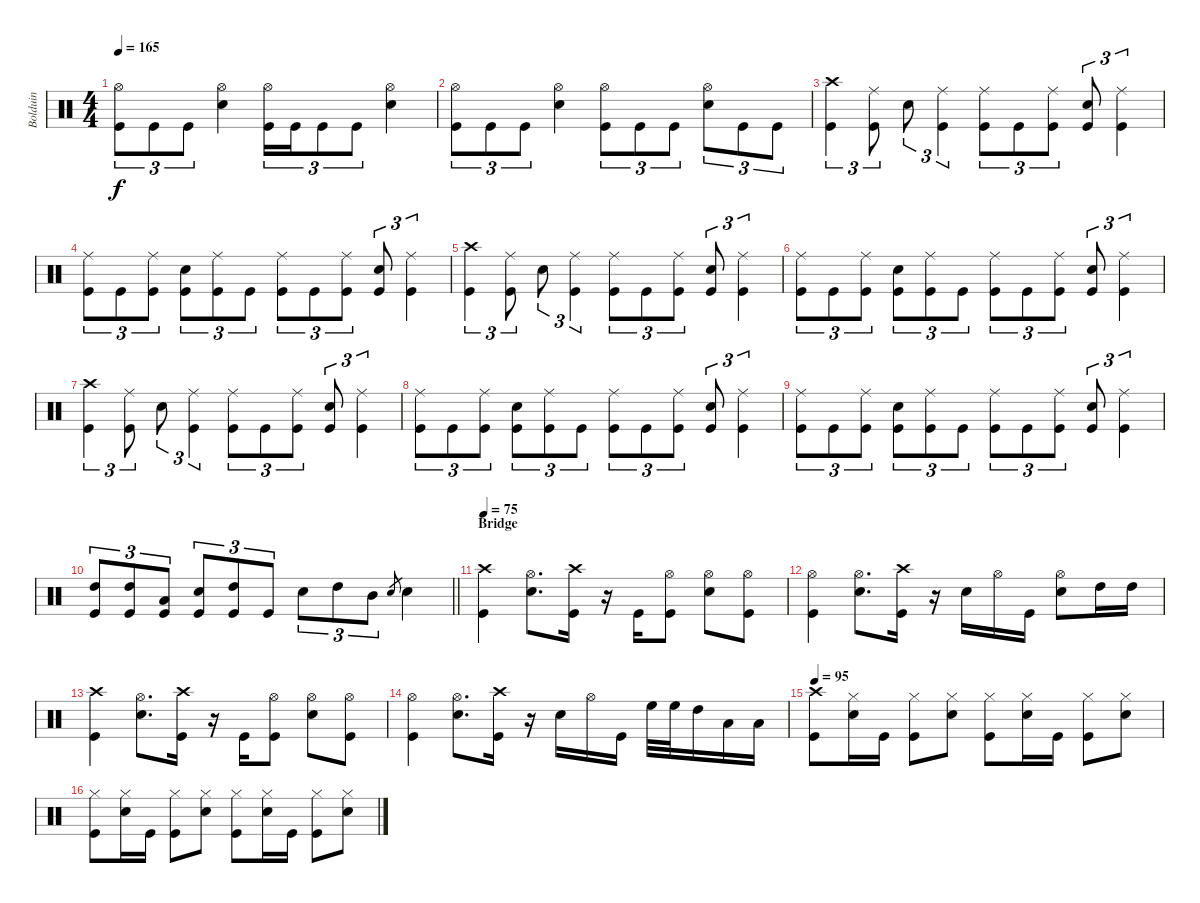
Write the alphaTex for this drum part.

\track ("Bolduin" "Bolduin") {instrument percussion}
\staff {score}
\articulation defaults
\ts (4 4)
\tempo 165
\clef neutral
\ks aminor
("Hi-Hat (open)" "Kick (hit)").8{tu (3 2) dy f} "Kick (hit)".8{tu (3 2)} "Kick (hit)".8{tu (3 2)} ("Hi-Hat (open)" "Snare (hit) 2").4 ("Hi-Hat (open)" "Kick (hit)").16{tu (3 2)} "Kick (hit)".16{tu (3 2)} "Kick (hit)".8{tu (3 2)} "Kick (hit)".8{tu (3 2)} ("Hi-Hat (open)" "Snare (hit) 2").4 |
("Hi-Hat (open)" "Kick (hit)").8{tu (3 2)} "Kick (hit)".8{tu (3 2)} "Kick (hit)".8{tu (3 2)} ("Hi-Hat (open)" "Snare (hit) 2").4 ("Hi-Hat (open)" "Kick (hit)").8{tu (3 2)} "Kick (hit)".8{tu (3 2)} "Kick (hit)".8{tu (3 2)} ("Hi-Hat (open)" "Snare (hit) 2").8{tu (3 2)} "Kick (hit)".8{tu (3 2)} "Kick (hit)".8{tu (3 2)} |
("Crash high (hit)" "Kick (hit)").4{tu (3 2)} ("Kick (hit)" "Ride (middle)").8{tu (3 2)} "Snare (hit) 2".8{tu (3 2)} ("Kick (hit)" "Ride (middle)").4{tu (3 2)} ("Kick (hit)" "Ride (middle)").8{tu (3 2)} "Kick (hit)".8{tu (3 2)} ("Kick (hit)" "Ride (middle)").8{tu (3 2)} ("Kick (hit)" "Snare (hit) 2").8{tu (3 2)} ("Kick (hit)" "Ride (middle)").4{tu (3 2)} |
("Kick (hit)" "Ride (middle)").8{tu (3 2)} "Kick (hit)".8{tu (3 2)} ("Kick (hit)" "Ride (middle)").8{tu (3 2)} ("Kick (hit)" "Snare (hit) 2").8{tu (3 2)} ("Kick (hit)" "Ride (middle)").8{tu (3 2)} "Kick (hit)".8{tu (3 2)} ("Kick (hit)" "Ride (middle)").8{tu (3 2)} "Kick (hit)".8{tu (3 2)} ("Kick (hit)" "Ride (middle)").8{tu (3 2)} ("Kick (hit)" "Snare (hit) 2").8{tu (3 2)} ("Kick (hit)" "Ride (middle)").4{tu (3 2)} |
("Crash high (hit)" "Kick (hit)").4{tu (3 2)} ("Kick (hit)" "Ride (middle)").8{tu (3 2)} "Snare (hit) 2".8{tu (3 2)} ("Kick (hit)" "Ride (middle)").4{tu (3 2)} ("Kick (hit)" "Ride (middle)").8{tu (3 2)} "Kick (hit)".8{tu (3 2)} ("Kick (hit)" "Ride (middle)").8{tu (3 2)} ("Kick (hit)" "Snare (hit) 2").8{tu (3 2)} ("Kick (hit)" "Ride (middle)").4{tu (3 2)} |
("Kick (hit)" "Ride (middle)").8{tu (3 2)} "Kick (hit)".8{tu (3 2)} ("Kick (hit)" "Ride (middle)").8{tu (3 2)} ("Kick (hit)" "Snare (hit) 2").8{tu (3 2)} ("Kick (hit)" "Ride (middle)").8{tu (3 2)} "Kick (hit)".8{tu (3 2)} ("Kick (hit)" "Ride (middle)").8{tu (3 2)} "Kick (hit)".8{tu (3 2)} ("Kick (hit)" "Ride (middle)").8{tu (3 2)} ("Kick (hit)" "Snare (hit) 2").8{tu (3 2)} ("Kick (hit)" "Ride (middle)").4{tu (3 2)} |
("Crash high (hit)" "Kick (hit)").4{tu (3 2)} ("Kick (hit)" "Ride (middle)").8{tu (3 2)} "Snare (hit) 2".8{tu (3 2)} ("Kick (hit)" "Ride (middle)").4{tu (3 2)} ("Kick (hit)" "Ride (middle)").8{tu (3 2)} "Kick (hit)".8{tu (3 2)} ("Kick (hit)" "Ride (middle)").8{tu (3 2)} ("Kick (hit)" "Snare (hit) 2").8{tu (3 2)} ("Kick (hit)" "Ride (middle)").4{tu (3 2)} |
("Kick (hit)" "Ride (middle)").8{tu (3 2)} "Kick (hit)".8{tu (3 2)} ("Kick (hit)" "Ride (middle)").8{tu (3 2)} ("Kick (hit)" "Snare (hit) 2").8{tu (3 2)} ("Kick (hit)" "Ride (middle)").8{tu (3 2)} "Kick (hit)".8{tu (3 2)} ("Kick (hit)" "Ride (middle)").8{tu (3 2)} "Kick (hit)".8{tu (3 2)} ("Kick (hit)" "Ride (middle)").8{tu (3 2)} ("Kick (hit)" "Snare (hit) 2").8{tu (3 2)} ("Kick (hit)" "Ride (middle)").4{tu (3 2)} |
("Kick (hit)" "Ride (middle)").8{tu (3 2)} "Kick (hit)".8{tu (3 2)} ("Kick (hit)" "Ride (middle)").8{tu (3 2)} ("Kick (hit)" "Snare (hit) 2").8{tu (3 2)} ("Kick (hit)" "Ride (middle)").8{tu (3 2)} "Kick (hit)".8{tu (3 2)} ("Kick (hit)" "Ride (middle)").8{tu (3 2)} "Kick (hit)".8{tu (3 2)} ("Kick (hit)" "Ride (middle)").8{tu (3 2)} ("Kick (hit)" "Snare (hit) 2").8{tu (3 2)} ("Kick (hit)" "Ride (middle)").4{tu (3 2)} |
\barLineRight lightlight
("High Tom (hit)" "Kick (hit)").8{tu (3 2)} ("High Tom (hit)" "Kick (hit)").8{tu (3 2)} ("Low Tom (hit)" "Kick (hit)").8{tu (3 2)} ("Kick (hit)" "Snare (hit) 2").8{tu (3 2)} ("High Tom (hit)" "Kick (hit)").8{tu (3 2)} "Kick (hit)".8{tu (3 2)} "Snare (hit) 2".8{tu (3 2)} "High Tom (hit)".8{tu (3 2)} "Mid Tom (hit)".8{tu (3 2)} "Snare (hit) 2".8{gr} "Snare (hit) 2".4 |
\section ("" "Bridge")
\tempo 75
("Crash high (hit)" "Kick (hit)").4 ("Hi-Hat (open)" "Snare (hit) 2").8{d} ("Kick (hit)" "Crash high (hit)").16 r.16 "Kick (hit)".16 ("Kick (hit)" "Hi-Hat (open)").8 ("Snare (hit) 2" "Hi-Hat (open)").8 ("Hi-Hat (open)" "Kick (hit)").8 |
("Hi-Hat (open)" "Kick (hit)").4 ("Hi-Hat (open)" "Snare (hit) 2").8{d} ("Kick (hit)" "Crash high (hit)").16 r.16 "Snare (hit) 2".16 "Hi-Hat (open)".16 "Kick (hit)".16 ("Snare (hit) 2" "Hi-Hat (open)").8 "High Tom (hit)".16 "High Tom (hit)".16 |
("Crash high (hit)" "Kick (hit)").4 ("Hi-Hat (open)" "Snare (hit) 2").8{d} ("Kick (hit)" "Crash high (hit)").16 r.16 "Kick (hit)".16 ("Kick (hit)" "Hi-Hat (open)").8 ("Snare (hit) 2" "Hi-Hat (open)").8 ("Kick (hit)" "Hi-Hat (open)").8 |
("Hi-Hat (open)" "Kick (hit)").4 ("Hi-Hat (open)" "Snare (hit) 2").8{d} ("Kick (hit)" "Crash high (hit)").16 r.16 "Snare (hit) 2".16 "Hi-Hat (open)".16 "Kick (hit)".16 "High Floor Tom (hit)".32 "High Floor Tom (hit)".32 "High Tom (hit)".16 "Low Tom (hit)".16 "Low Tom (hit)".16 |
\tempo 95
("Kick (hit)" "Crash high (hit)").8 ("Snare (hit) 2" "Hi-Hat (closed)").16 "Kick (hit)".16 ("Kick (hit)" "Hi-Hat (closed)").8 ("Snare (hit) 2" "Hi-Hat (closed)").8 ("Kick (hit)" "Hi-Hat (closed)").8 ("Snare (hit) 2" "Hi-Hat (closed)").16 "Kick (hit)".16 ("Kick (hit)" "Hi-Hat (closed)").8 ("Snare (hit) 2" "Hi-Hat (closed)").8 |
("Kick (hit)" "Hi-Hat (closed)").8 ("Snare (hit) 2" "Hi-Hat (closed)").16 "Kick (hit)".16 ("Kick (hit)" "Hi-Hat (closed)").8 ("Snare (hit) 2" "Hi-Hat (closed)").8 ("Kick (hit)" "Hi-Hat (closed)").8 ("Snare (hit) 2" "Hi-Hat (closed)").16 "Kick (hit)".16 ("Kick (hit)" "Hi-Hat (closed)").8 ("Snare (hit) 2" "Hi-Hat (closed)").8
